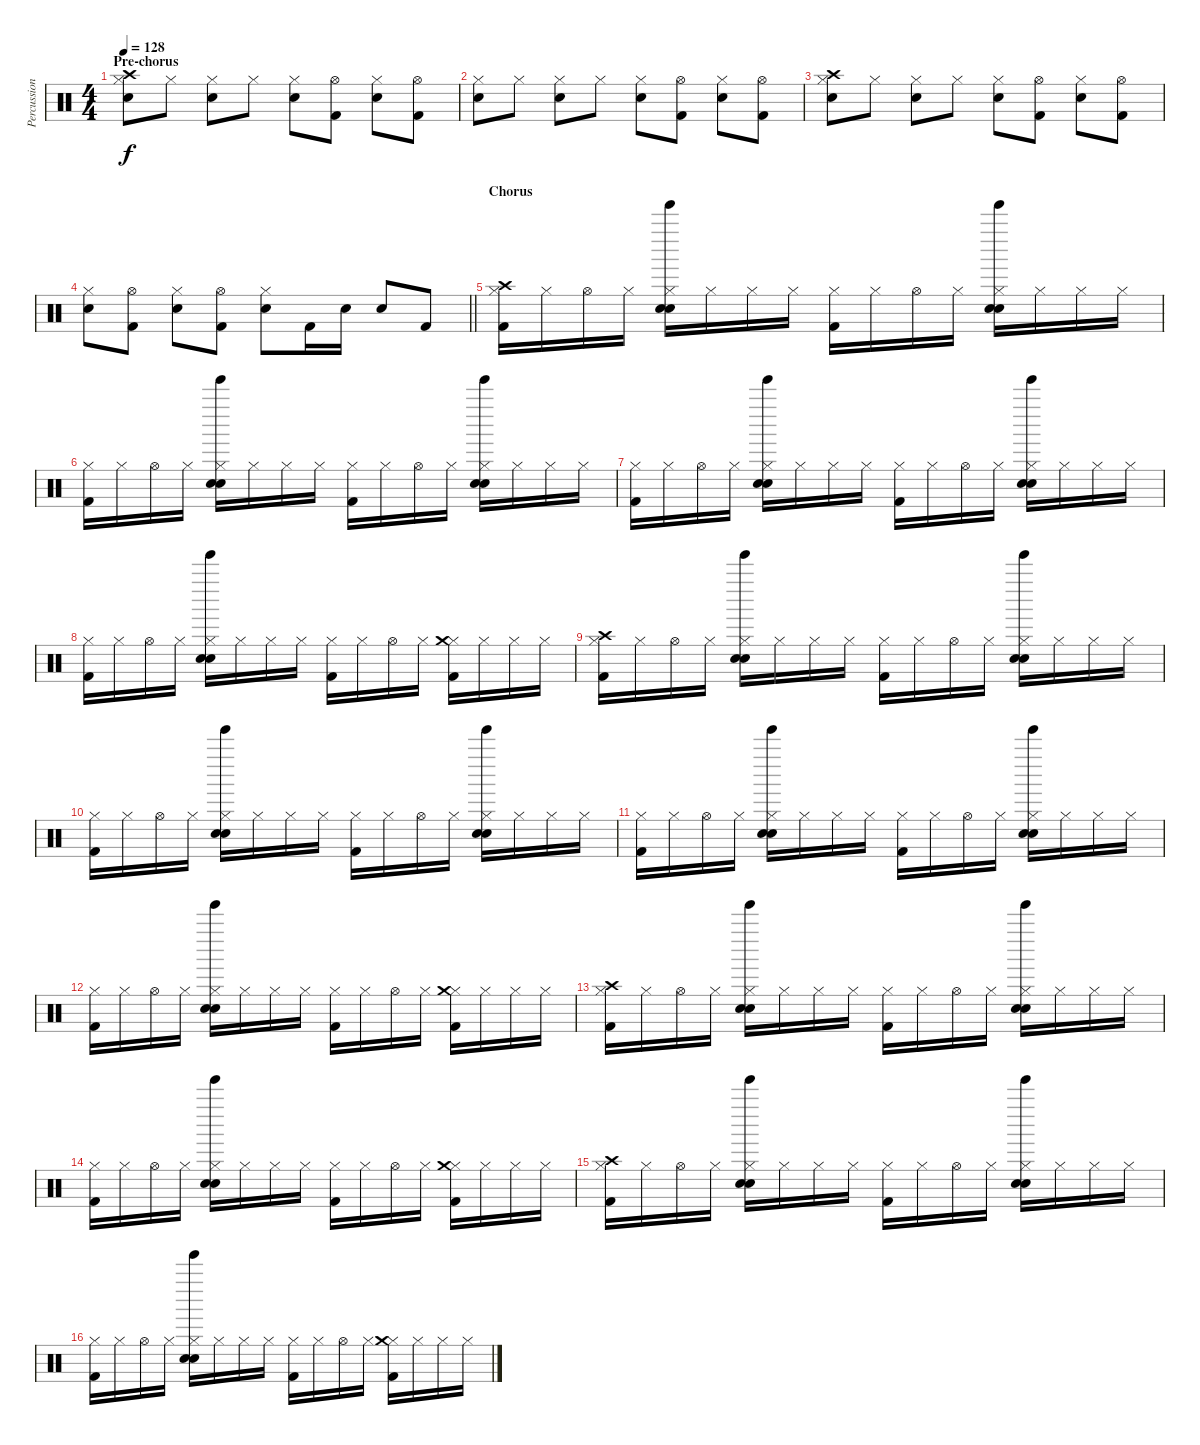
\track ("Percussion" "Percussion") {instrument percussion}
\staff {score}
\articulation defaults
\ts (4 4)
\section ("" "Pre-chorus")
\tempo 128
\clef neutral
\ks c
("Hi-Hat (closed)" "Crash high (hit)" "Electric Snare (hit)").8{dy f} "Hi-Hat (closed)".8 ("Hi-Hat (closed)" "Electric Snare (hit)").8 "Hi-Hat (closed)".8 ("Hi-Hat (closed)" "Electric Snare (hit)").8 ("Hi-Hat (open)" "Kick (hit) 2").8 ("Hi-Hat (closed)" "Electric Snare (hit)").8 ("Hi-Hat (open)" "Kick (hit) 2").8 |
("Hi-Hat (closed)" "Electric Snare (hit)").8 "Hi-Hat (closed)".8 ("Hi-Hat (closed)" "Electric Snare (hit)").8 "Hi-Hat (closed)".8 ("Hi-Hat (closed)" "Electric Snare (hit)").8 ("Hi-Hat (open)" "Kick (hit) 2").8 ("Hi-Hat (closed)" "Electric Snare (hit)").8 ("Hi-Hat (open)" "Kick (hit) 2").8 |
("Hi-Hat (closed)" "Crash high (hit)" "Electric Snare (hit)").8 "Hi-Hat (closed)".8 ("Hi-Hat (closed)" "Electric Snare (hit)").8 "Hi-Hat (closed)".8 ("Hi-Hat (closed)" "Electric Snare (hit)").8 ("Hi-Hat (open)" "Kick (hit) 2").8 ("Hi-Hat (closed)" "Electric Snare (hit)").8 ("Hi-Hat (open)" "Kick (hit) 2").8 |
\barLineRight lightlight
("Hi-Hat (closed)" "Electric Snare (hit)").8 ("Hi-Hat (open)" "Kick (hit) 2").8 ("Hi-Hat (closed)" "Electric Snare (hit)").8 ("Hi-Hat (open)" "Kick (hit) 2").8 ("Hi-Hat (closed)" "Electric Snare (hit)").8 "Kick (hit) 2".16 "Electric Snare (hit)".16 "Electric Snare (hit)".8 "Kick (hit) 2".8 |
\section ("" "Chorus")
("Hi-Hat (closed)" "Crash high (hit)" "Kick (hit) 2").16 "Hi-Hat (closed)".16 "Hi-Hat (open)".16 "Hi-Hat (closed)".16 ("Hi-Hat (closed)" "Hand Clap (hit)" "Tinkle Bell (hit)" "Electric Snare (hit)").16 "Hi-Hat (closed)".16 "Hi-Hat (closed)".16 "Hi-Hat (closed)".16 ("Hi-Hat (closed)" "Kick (hit) 2").16 "Hi-Hat (closed)".16 "Hi-Hat (open)".16 "Hi-Hat (closed)".16 ("Hi-Hat (closed)" "Hand Clap (hit)" "Tinkle Bell (hit)" "Electric Snare (hit)").16 "Hi-Hat (closed)".16 "Hi-Hat (closed)".16 "Hi-Hat (closed)".16 |
("Hi-Hat (closed)" "Kick (hit) 2").16 "Hi-Hat (closed)".16 "Hi-Hat (open)".16 "Hi-Hat (closed)".16 ("Hi-Hat (closed)" "Hand Clap (hit)" "Tinkle Bell (hit)" "Electric Snare (hit)").16 "Hi-Hat (closed)".16 "Hi-Hat (closed)".16 "Hi-Hat (closed)".16 ("Hi-Hat (closed)" "Kick (hit) 2").16 "Hi-Hat (closed)".16 "Hi-Hat (open)".16 "Hi-Hat (closed)".16 ("Hi-Hat (closed)" "Hand Clap (hit)" "Tinkle Bell (hit)" "Electric Snare (hit)").16 "Hi-Hat (closed)".16 "Hi-Hat (closed)".16 "Hi-Hat (closed)".16 |
("Hi-Hat (closed)" "Kick (hit) 2").16 "Hi-Hat (closed)".16 "Hi-Hat (open)".16 "Hi-Hat (closed)".16 ("Hi-Hat (closed)" "Hand Clap (hit)" "Tinkle Bell (hit)" "Electric Snare (hit)").16 "Hi-Hat (closed)".16 "Hi-Hat (closed)".16 "Hi-Hat (closed)".16 ("Hi-Hat (closed)" "Kick (hit) 2").16 "Hi-Hat (closed)".16 "Hi-Hat (open)".16 "Hi-Hat (closed)".16 ("Hi-Hat (closed)" "Hand Clap (hit)" "Tinkle Bell (hit)" "Electric Snare (hit)").16 "Hi-Hat (closed)".16 "Hi-Hat (closed)".16 "Hi-Hat (closed)".16 |
("Hi-Hat (closed)" "Kick (hit) 2").16 "Hi-Hat (closed)".16 "Hi-Hat (open)".16 "Hi-Hat (closed)".16 ("Hi-Hat (closed)" "Hand Clap (hit)" "Tinkle Bell (hit)" "Electric Snare (hit)").16 "Hi-Hat (closed)".16 "Hi-Hat (closed)".16 "Hi-Hat (closed)".16 ("Hi-Hat (closed)" "Kick (hit) 2").16 "Hi-Hat (closed)".16 "Hi-Hat (open)".16 "Hi-Hat (closed)".16 ("Hi-Hat (closed)" "Crash medium (hit)" "Kick (hit) 2").16 "Hi-Hat (closed)".16 "Hi-Hat (closed)".16 "Hi-Hat (closed)".16 |
("Hi-Hat (closed)" "Crash high (hit)" "Kick (hit) 2").16 "Hi-Hat (closed)".16 "Hi-Hat (open)".16 "Hi-Hat (closed)".16 ("Hi-Hat (closed)" "Hand Clap (hit)" "Tinkle Bell (hit)" "Electric Snare (hit)").16 "Hi-Hat (closed)".16 "Hi-Hat (closed)".16 "Hi-Hat (closed)".16 ("Hi-Hat (closed)" "Kick (hit) 2").16 "Hi-Hat (closed)".16 "Hi-Hat (open)".16 "Hi-Hat (closed)".16 ("Hi-Hat (closed)" "Hand Clap (hit)" "Tinkle Bell (hit)" "Electric Snare (hit)").16 "Hi-Hat (closed)".16 "Hi-Hat (closed)".16 "Hi-Hat (closed)".16 |
("Hi-Hat (closed)" "Kick (hit) 2").16 "Hi-Hat (closed)".16 "Hi-Hat (open)".16 "Hi-Hat (closed)".16 ("Hi-Hat (closed)" "Hand Clap (hit)" "Tinkle Bell (hit)" "Electric Snare (hit)").16 "Hi-Hat (closed)".16 "Hi-Hat (closed)".16 "Hi-Hat (closed)".16 ("Hi-Hat (closed)" "Kick (hit) 2").16 "Hi-Hat (closed)".16 "Hi-Hat (open)".16 "Hi-Hat (closed)".16 ("Hi-Hat (closed)" "Hand Clap (hit)" "Tinkle Bell (hit)" "Electric Snare (hit)").16 "Hi-Hat (closed)".16 "Hi-Hat (closed)".16 "Hi-Hat (closed)".16 |
("Hi-Hat (closed)" "Kick (hit) 2").16 "Hi-Hat (closed)".16 "Hi-Hat (open)".16 "Hi-Hat (closed)".16 ("Hi-Hat (closed)" "Hand Clap (hit)" "Tinkle Bell (hit)" "Electric Snare (hit)").16 "Hi-Hat (closed)".16 "Hi-Hat (closed)".16 "Hi-Hat (closed)".16 ("Hi-Hat (closed)" "Kick (hit) 2").16 "Hi-Hat (closed)".16 "Hi-Hat (open)".16 "Hi-Hat (closed)".16 ("Hi-Hat (closed)" "Hand Clap (hit)" "Tinkle Bell (hit)" "Electric Snare (hit)").16 "Hi-Hat (closed)".16 "Hi-Hat (closed)".16 "Hi-Hat (closed)".16 |
("Hi-Hat (closed)" "Kick (hit) 2").16 "Hi-Hat (closed)".16 "Hi-Hat (open)".16 "Hi-Hat (closed)".16 ("Hi-Hat (closed)" "Hand Clap (hit)" "Tinkle Bell (hit)" "Electric Snare (hit)").16 "Hi-Hat (closed)".16 "Hi-Hat (closed)".16 "Hi-Hat (closed)".16 ("Hi-Hat (closed)" "Kick (hit) 2").16 "Hi-Hat (closed)".16 "Hi-Hat (open)".16 "Hi-Hat (closed)".16 ("Hi-Hat (closed)" "Crash medium (hit)" "Kick (hit) 2").16 "Hi-Hat (closed)".16 "Hi-Hat (closed)".16 "Hi-Hat (closed)".16 |
("Hi-Hat (closed)" "Crash high (hit)" "Kick (hit) 2").16 "Hi-Hat (closed)".16 "Hi-Hat (open)".16 "Hi-Hat (closed)".16 ("Hi-Hat (closed)" "Hand Clap (hit)" "Tinkle Bell (hit)" "Electric Snare (hit)").16 "Hi-Hat (closed)".16 "Hi-Hat (closed)".16 "Hi-Hat (closed)".16 ("Hi-Hat (closed)" "Kick (hit) 2").16 "Hi-Hat (closed)".16 "Hi-Hat (open)".16 "Hi-Hat (closed)".16 ("Hi-Hat (closed)" "Hand Clap (hit)" "Tinkle Bell (hit)" "Electric Snare (hit)").16 "Hi-Hat (closed)".16 "Hi-Hat (closed)".16 "Hi-Hat (closed)".16 |
("Hi-Hat (closed)" "Kick (hit) 2").16 "Hi-Hat (closed)".16 "Hi-Hat (open)".16 "Hi-Hat (closed)".16 ("Hi-Hat (closed)" "Hand Clap (hit)" "Tinkle Bell (hit)" "Electric Snare (hit)").16 "Hi-Hat (closed)".16 "Hi-Hat (closed)".16 "Hi-Hat (closed)".16 ("Hi-Hat (closed)" "Kick (hit) 2").16 "Hi-Hat (closed)".16 "Hi-Hat (open)".16 "Hi-Hat (closed)".16 ("Hi-Hat (closed)" "Crash medium (hit)" "Kick (hit) 2").16 "Hi-Hat (closed)".16 "Hi-Hat (closed)".16 "Hi-Hat (closed)".16 |
("Hi-Hat (closed)" "Crash high (hit)" "Kick (hit) 2").16 "Hi-Hat (closed)".16 "Hi-Hat (open)".16 "Hi-Hat (closed)".16 ("Hi-Hat (closed)" "Hand Clap (hit)" "Tinkle Bell (hit)" "Electric Snare (hit)").16 "Hi-Hat (closed)".16 "Hi-Hat (closed)".16 "Hi-Hat (closed)".16 ("Hi-Hat (closed)" "Kick (hit) 2").16 "Hi-Hat (closed)".16 "Hi-Hat (open)".16 "Hi-Hat (closed)".16 ("Hi-Hat (closed)" "Hand Clap (hit)" "Tinkle Bell (hit)" "Electric Snare (hit)").16 "Hi-Hat (closed)".16 "Hi-Hat (closed)".16 "Hi-Hat (closed)".16 |
("Hi-Hat (closed)" "Kick (hit) 2").16 "Hi-Hat (closed)".16 "Hi-Hat (open)".16 "Hi-Hat (closed)".16 ("Hi-Hat (closed)" "Hand Clap (hit)" "Tinkle Bell (hit)" "Electric Snare (hit)").16 "Hi-Hat (closed)".16 "Hi-Hat (closed)".16 "Hi-Hat (closed)".16 ("Hi-Hat (closed)" "Kick (hit) 2").16 "Hi-Hat (closed)".16 "Hi-Hat (open)".16 "Hi-Hat (closed)".16 ("Hi-Hat (closed)" "Crash medium (hit)" "Kick (hit) 2").16 "Hi-Hat (closed)".16 "Hi-Hat (closed)".16 "Hi-Hat (closed)".16
